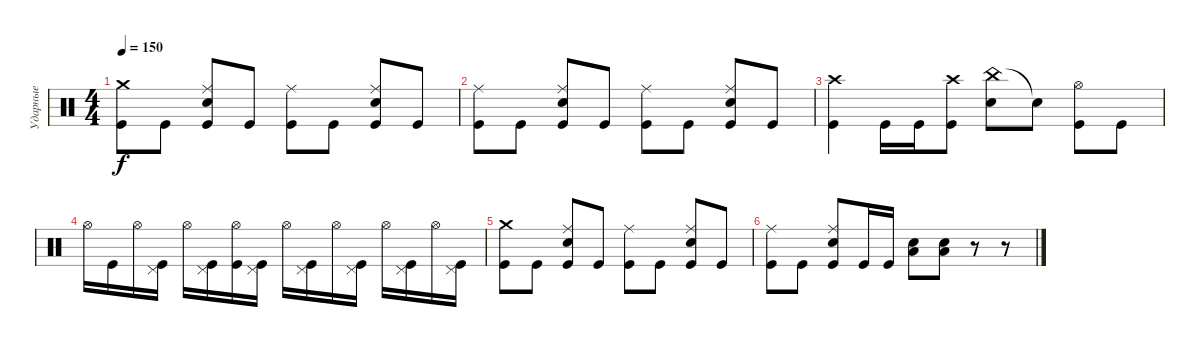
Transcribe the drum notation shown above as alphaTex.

\track ("Ударные" "Ударные") {instrument percussion}
\staff {score}
\articulation defaults
\ts (4 4)
\tempo 150
\clef neutral
\ks c
("Crash medium (hit)" "Kick (hit)").8{dy f} "Kick (hit)".8 ("Ride (middle)" "Electric Snare (hit)" "Kick (hit)").8 "Kick (hit)".8 ("Ride (middle)" "Kick (hit)").8 "Kick (hit)".8 ("Ride (middle)" "Electric Snare (hit)" "Kick (hit)").8 "Kick (hit)".8 |
("Ride (middle)" "Kick (hit)").8 "Kick (hit)".8 ("Ride (middle)" "Electric Snare (hit)" "Kick (hit)").8 "Kick (hit)".8 ("Ride (middle)" "Kick (hit)").8 "Kick (hit)".8 ("Ride (middle)" "Electric Snare (hit)" "Kick (hit)").8 "Kick (hit)".8 |
("Crash high (hit)" "Kick (hit)").4 "Kick (hit)".16 "Kick (hit)".16 ("Crash high (hit)" "Kick (hit)").8 ("China (hit)" "Electric Snare (hit)").8 "Snare (hit)"{t}.8 ("Hi-Hat (open)" "Kick (hit)").8 "Kick (hit)".8 |
"Hi-Hat (open)".16 "Kick (hit)".16 "Hi-Hat (open)".16 ("Pedal Hi-Hat (hit)" "Kick (hit)").16 "Hi-Hat (open)".16 ("Pedal Hi-Hat (hit)" "Kick (hit)").16 ("Hi-Hat (open)" "Kick (hit)").16 ("Pedal Hi-Hat (hit)" "Kick (hit)").16 "Hi-Hat (open)".16 ("Pedal Hi-Hat (hit)" "Kick (hit)").16 "Hi-Hat (open)".16 ("Pedal Hi-Hat (hit)" "Kick (hit)").16 "Hi-Hat (open)".16 ("Pedal Hi-Hat (hit)" "Kick (hit)").16 "Hi-Hat (open)".16 ("Pedal Hi-Hat (hit)" "Kick (hit)").16 |
("Crash medium (hit)" "Kick (hit)").8 "Kick (hit)".8 ("Ride (middle)" "Electric Snare (hit)" "Kick (hit)").8 "Kick (hit)".8 ("Ride (middle)" "Kick (hit)").8 "Kick (hit)".8 ("Ride (middle)" "Electric Snare (hit)" "Kick (hit)").8 "Kick (hit)".8 |
("Ride (middle)" "Kick (hit)").8 "Kick (hit)".8 ("Ride (middle)" "Electric Snare (hit)" "Kick (hit)").8 "Kick (hit)".16 "Kick (hit)".16 ("Low Floor Tom (hit)" "Electric Snare (hit)").8 ("Low Floor Tom (hit)" "Electric Snare (hit)").8 r.8 r.8
